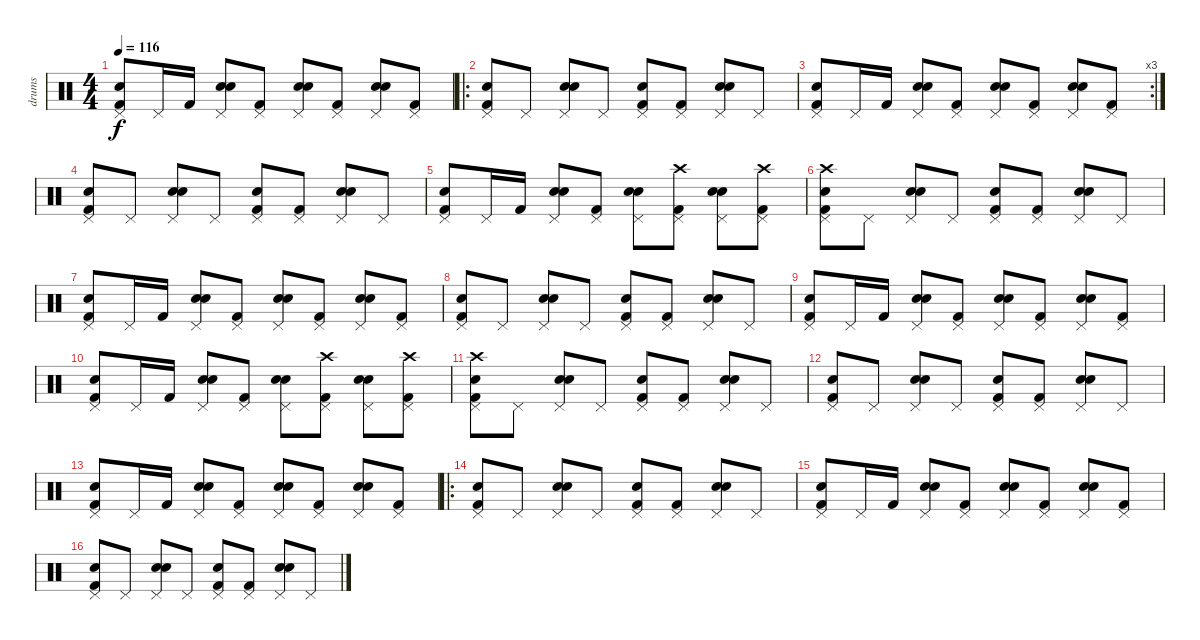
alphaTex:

\track ("drums" "drums") {instrument percussion}
\staff {score}
\articulation defaults
\ts (4 4)
\tempo 116
\clef neutral
\ks c
("Hand Clap (hit)" "Pedal Hi-Hat (hit)" "Kick (hit) 2").8{dy f} "Pedal Hi-Hat (hit)".16 "Kick (hit) 2".16 ("Hand Clap (hit)" "Pedal Hi-Hat (hit)" "Snare (hit) 2").8 ("Pedal Hi-Hat (hit)" "Kick (hit) 2").8 ("Hand Clap (hit)" "Pedal Hi-Hat (hit)" "Snare (hit) 2").8 ("Pedal Hi-Hat (hit)" "Kick (hit) 2").8 ("Hand Clap (hit)" "Pedal Hi-Hat (hit)" "Snare (hit) 2").8 ("Pedal Hi-Hat (hit)" "Kick (hit) 2").8 |
\ro
("Hand Clap (hit)" "Pedal Hi-Hat (hit)" "Kick (hit) 2").8 "Pedal Hi-Hat (hit)".8 ("Hand Clap (hit)" "Pedal Hi-Hat (hit)" "Snare (hit) 2").8 "Pedal Hi-Hat (hit)".8 ("Hand Clap (hit)" "Pedal Hi-Hat (hit)" "Kick (hit) 2").8 ("Pedal Hi-Hat (hit)" "Kick (hit) 2").8 ("Hand Clap (hit)" "Pedal Hi-Hat (hit)" "Snare (hit) 2").8 "Pedal Hi-Hat (hit)".8 |
\rc 3
("Hand Clap (hit)" "Pedal Hi-Hat (hit)" "Kick (hit) 2").8 "Pedal Hi-Hat (hit)".16 "Kick (hit) 2".16 ("Hand Clap (hit)" "Pedal Hi-Hat (hit)" "Snare (hit) 2").8 ("Pedal Hi-Hat (hit)" "Kick (hit) 2").8 ("Hand Clap (hit)" "Pedal Hi-Hat (hit)" "Snare (hit) 2").8 ("Pedal Hi-Hat (hit)" "Kick (hit) 2").8 ("Hand Clap (hit)" "Pedal Hi-Hat (hit)" "Snare (hit) 2").8 ("Pedal Hi-Hat (hit)" "Kick (hit) 2").8 |
("Hand Clap (hit)" "Pedal Hi-Hat (hit)" "Kick (hit) 2").8 "Pedal Hi-Hat (hit)".8 ("Hand Clap (hit)" "Pedal Hi-Hat (hit)" "Snare (hit) 2").8 "Pedal Hi-Hat (hit)".8 ("Hand Clap (hit)" "Pedal Hi-Hat (hit)" "Kick (hit) 2").8 ("Pedal Hi-Hat (hit)" "Kick (hit) 2").8 ("Hand Clap (hit)" "Pedal Hi-Hat (hit)" "Snare (hit) 2").8 "Pedal Hi-Hat (hit)".8 |
("Hand Clap (hit)" "Pedal Hi-Hat (hit)" "Kick (hit) 2").8 "Pedal Hi-Hat (hit)".16 "Kick (hit) 2".16 ("Hand Clap (hit)" "Pedal Hi-Hat (hit)" "Snare (hit) 2").8 ("Pedal Hi-Hat (hit)" "Kick (hit) 2").8 ("Hand Clap (hit)" "Pedal Hi-Hat (hit)" "Snare (hit) 2").8 ("Crash high (hit)" "Pedal Hi-Hat (hit)" "Kick (hit) 2").8 ("Hand Clap (hit)" "Pedal Hi-Hat (hit)" "Snare (hit) 2").8 ("Crash high (hit)" "Pedal Hi-Hat (hit)" "Kick (hit) 2").8 |
("Crash high (hit)" "Hand Clap (hit)" "Pedal Hi-Hat (hit)" "Kick (hit) 2").8 "Pedal Hi-Hat (hit)".8 ("Hand Clap (hit)" "Pedal Hi-Hat (hit)" "Snare (hit) 2").8 "Pedal Hi-Hat (hit)".8 ("Hand Clap (hit)" "Pedal Hi-Hat (hit)" "Kick (hit) 2").8 ("Pedal Hi-Hat (hit)" "Kick (hit) 2").8 ("Hand Clap (hit)" "Pedal Hi-Hat (hit)" "Snare (hit) 2").8 "Pedal Hi-Hat (hit)".8 |
("Hand Clap (hit)" "Pedal Hi-Hat (hit)" "Kick (hit) 2").8 "Pedal Hi-Hat (hit)".16 "Kick (hit) 2".16 ("Hand Clap (hit)" "Pedal Hi-Hat (hit)" "Snare (hit) 2").8 ("Pedal Hi-Hat (hit)" "Kick (hit) 2").8 ("Hand Clap (hit)" "Pedal Hi-Hat (hit)" "Snare (hit) 2").8 ("Pedal Hi-Hat (hit)" "Kick (hit) 2").8 ("Hand Clap (hit)" "Pedal Hi-Hat (hit)" "Snare (hit) 2").8 ("Pedal Hi-Hat (hit)" "Kick (hit) 2").8 |
("Hand Clap (hit)" "Pedal Hi-Hat (hit)" "Kick (hit) 2").8 "Pedal Hi-Hat (hit)".8 ("Hand Clap (hit)" "Pedal Hi-Hat (hit)" "Snare (hit) 2").8 "Pedal Hi-Hat (hit)".8 ("Hand Clap (hit)" "Pedal Hi-Hat (hit)" "Kick (hit) 2").8 ("Pedal Hi-Hat (hit)" "Kick (hit) 2").8 ("Hand Clap (hit)" "Pedal Hi-Hat (hit)" "Snare (hit) 2").8 "Pedal Hi-Hat (hit)".8 |
("Hand Clap (hit)" "Pedal Hi-Hat (hit)" "Kick (hit) 2").8 "Pedal Hi-Hat (hit)".16 "Kick (hit) 2".16 ("Hand Clap (hit)" "Pedal Hi-Hat (hit)" "Snare (hit) 2").8 ("Pedal Hi-Hat (hit)" "Kick (hit) 2").8 ("Hand Clap (hit)" "Pedal Hi-Hat (hit)" "Snare (hit) 2").8 ("Pedal Hi-Hat (hit)" "Kick (hit) 2").8 ("Hand Clap (hit)" "Pedal Hi-Hat (hit)" "Snare (hit) 2").8 ("Pedal Hi-Hat (hit)" "Kick (hit) 2").8 |
("Hand Clap (hit)" "Pedal Hi-Hat (hit)" "Kick (hit) 2").8 "Pedal Hi-Hat (hit)".16 "Kick (hit) 2".16 ("Hand Clap (hit)" "Pedal Hi-Hat (hit)" "Snare (hit) 2").8 ("Pedal Hi-Hat (hit)" "Kick (hit) 2").8 ("Hand Clap (hit)" "Pedal Hi-Hat (hit)" "Snare (hit) 2").8 ("Crash high (hit)" "Pedal Hi-Hat (hit)" "Kick (hit) 2").8 ("Hand Clap (hit)" "Pedal Hi-Hat (hit)" "Snare (hit) 2").8 ("Crash high (hit)" "Pedal Hi-Hat (hit)" "Kick (hit) 2").8 |
("Crash high (hit)" "Hand Clap (hit)" "Pedal Hi-Hat (hit)" "Kick (hit) 2").8 "Pedal Hi-Hat (hit)".8 ("Hand Clap (hit)" "Pedal Hi-Hat (hit)" "Snare (hit) 2").8 "Pedal Hi-Hat (hit)".8 ("Hand Clap (hit)" "Pedal Hi-Hat (hit)" "Kick (hit) 2").8 ("Pedal Hi-Hat (hit)" "Kick (hit) 2").8 ("Hand Clap (hit)" "Pedal Hi-Hat (hit)" "Snare (hit) 2").8 "Pedal Hi-Hat (hit)".8 |
("Hand Clap (hit)" "Pedal Hi-Hat (hit)" "Kick (hit) 2").8 "Pedal Hi-Hat (hit)".8 ("Hand Clap (hit)" "Pedal Hi-Hat (hit)" "Snare (hit) 2").8 "Pedal Hi-Hat (hit)".8 ("Hand Clap (hit)" "Pedal Hi-Hat (hit)" "Kick (hit) 2").8 ("Pedal Hi-Hat (hit)" "Kick (hit) 2").8 ("Hand Clap (hit)" "Pedal Hi-Hat (hit)" "Snare (hit) 2").8 "Pedal Hi-Hat (hit)".8 |
("Hand Clap (hit)" "Pedal Hi-Hat (hit)" "Kick (hit) 2").8 "Pedal Hi-Hat (hit)".16 "Kick (hit) 2".16 ("Hand Clap (hit)" "Pedal Hi-Hat (hit)" "Snare (hit) 2").8 ("Pedal Hi-Hat (hit)" "Kick (hit) 2").8 ("Hand Clap (hit)" "Pedal Hi-Hat (hit)" "Snare (hit) 2").8 ("Pedal Hi-Hat (hit)" "Kick (hit) 2").8 ("Hand Clap (hit)" "Pedal Hi-Hat (hit)" "Snare (hit) 2").8 ("Pedal Hi-Hat (hit)" "Kick (hit) 2").8 |
\ro
("Hand Clap (hit)" "Pedal Hi-Hat (hit)" "Kick (hit) 2").8 "Pedal Hi-Hat (hit)".8 ("Hand Clap (hit)" "Pedal Hi-Hat (hit)" "Snare (hit) 2").8 "Pedal Hi-Hat (hit)".8 ("Hand Clap (hit)" "Pedal Hi-Hat (hit)" "Kick (hit) 2").8 ("Pedal Hi-Hat (hit)" "Kick (hit) 2").8 ("Hand Clap (hit)" "Pedal Hi-Hat (hit)" "Snare (hit) 2").8 "Pedal Hi-Hat (hit)".8 |
("Hand Clap (hit)" "Pedal Hi-Hat (hit)" "Kick (hit) 2").8 "Pedal Hi-Hat (hit)".16 "Kick (hit) 2".16 ("Hand Clap (hit)" "Pedal Hi-Hat (hit)" "Snare (hit) 2").8 ("Pedal Hi-Hat (hit)" "Kick (hit) 2").8 ("Hand Clap (hit)" "Pedal Hi-Hat (hit)" "Snare (hit) 2").8 ("Pedal Hi-Hat (hit)" "Kick (hit) 2").8 ("Hand Clap (hit)" "Pedal Hi-Hat (hit)" "Snare (hit) 2").8 ("Pedal Hi-Hat (hit)" "Kick (hit) 2").8 |
("Hand Clap (hit)" "Pedal Hi-Hat (hit)" "Kick (hit) 2").8 "Pedal Hi-Hat (hit)".8 ("Hand Clap (hit)" "Pedal Hi-Hat (hit)" "Snare (hit) 2").8 "Pedal Hi-Hat (hit)".8 ("Hand Clap (hit)" "Pedal Hi-Hat (hit)" "Kick (hit) 2").8 ("Pedal Hi-Hat (hit)" "Kick (hit) 2").8 ("Hand Clap (hit)" "Pedal Hi-Hat (hit)" "Snare (hit) 2").8 "Pedal Hi-Hat (hit)".8
